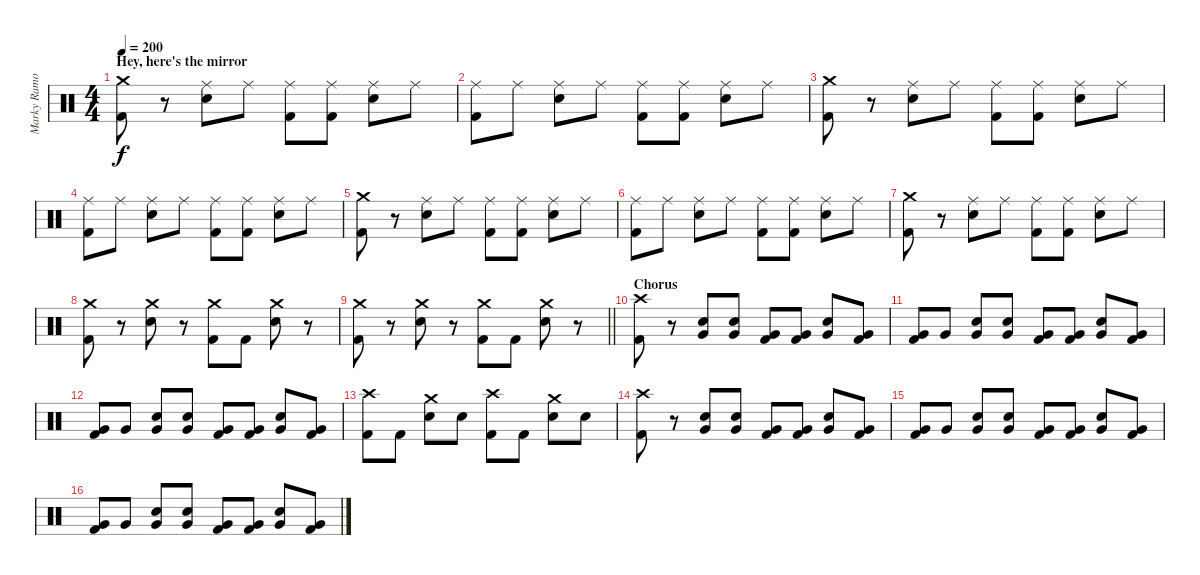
\track ("Marky Ramone" "Marky Ramo") {instrument percussion}
\staff {score}
\articulation defaults
\ts (4 4)
\section ("" "Hey, here's the mirror")
\tempo 200
\clef neutral
\ks c
("Crash medium (hit)" "Kick (hit) 2").8{dy f} r.8 ("Ride (middle)" "Electric Snare (hit)").8 "Ride (middle)".8 ("Ride (middle)" "Kick (hit) 2").8 ("Ride (middle)" "Kick (hit) 2").8 ("Ride (middle)" "Electric Snare (hit)").8 "Ride (middle)".8 |
("Ride (middle)" "Kick (hit) 2").8 "Ride (middle)".8 ("Ride (middle)" "Electric Snare (hit)").8 "Ride (middle)".8 ("Ride (middle)" "Kick (hit) 2").8 ("Ride (middle)" "Kick (hit) 2").8 ("Ride (middle)" "Electric Snare (hit)").8 "Ride (middle)".8 |
("Crash medium (hit)" "Kick (hit) 2").8 r.8 ("Ride (middle)" "Electric Snare (hit)").8 "Ride (middle)".8 ("Ride (middle)" "Kick (hit) 2").8 ("Ride (middle)" "Kick (hit) 2").8 ("Ride (middle)" "Electric Snare (hit)").8 "Ride (middle)".8 |
("Ride (middle)" "Kick (hit) 2").8 "Ride (middle)".8 ("Ride (middle)" "Electric Snare (hit)").8 "Ride (middle)".8 ("Ride (middle)" "Kick (hit) 2").8 ("Ride (middle)" "Kick (hit) 2").8 ("Ride (middle)" "Electric Snare (hit)").8 "Ride (middle)".8 |
("Crash medium (hit)" "Kick (hit) 2").8 r.8 ("Ride (middle)" "Electric Snare (hit)").8 "Ride (middle)".8 ("Ride (middle)" "Kick (hit) 2").8 ("Ride (middle)" "Kick (hit) 2").8 ("Ride (middle)" "Electric Snare (hit)").8 "Ride (middle)".8 |
("Ride (middle)" "Kick (hit) 2").8 "Ride (middle)".8 ("Ride (middle)" "Electric Snare (hit)").8 "Ride (middle)".8 ("Ride (middle)" "Kick (hit) 2").8 ("Ride (middle)" "Kick (hit) 2").8 ("Ride (middle)" "Electric Snare (hit)").8 "Ride (middle)".8 |
("Crash medium (hit)" "Kick (hit) 2").8 r.8 ("Ride (middle)" "Electric Snare (hit)").8 "Ride (middle)".8 ("Ride (middle)" "Kick (hit) 2").8 ("Ride (middle)" "Kick (hit) 2").8 ("Ride (middle)" "Electric Snare (hit)").8 "Ride (middle)".8 |
("Crash medium (hit)" "Kick (hit) 2").8 r.8 ("Crash medium (hit)" "Electric Snare (hit)").8 r.8 ("Crash medium (hit)" "Kick (hit) 2").8 "Kick (hit) 2".8 ("Crash medium (hit)" "Electric Snare (hit)").8 r.8 |
\barLineRight lightlight
("Crash medium (hit)" "Kick (hit) 2").8 r.8 ("Crash medium (hit)" "Electric Snare (hit)").8 r.8 ("Crash medium (hit)" "Kick (hit) 2").8 "Kick (hit) 2".8 ("Crash medium (hit)" "Electric Snare (hit)").8 r.8 |
\section ("" "Chorus")
("Crash high (hit)" "Kick (hit) 2").8 r.8 ("Very Low Tom (hit)" "Electric Snare (hit)").8 ("Very Low Tom (hit)" "Electric Snare (hit)").8 ("Very Low Tom (hit)" "Kick (hit) 2").8 ("Very Low Tom (hit)" "Kick (hit) 2").8 ("Very Low Tom (hit)" "Electric Snare (hit)").8 ("Very Low Tom (hit)" "Kick (hit) 2").8 |
("Very Low Tom (hit)" "Kick (hit) 2").8 "Very Low Tom (hit)".8 ("Very Low Tom (hit)" "Electric Snare (hit)").8 ("Very Low Tom (hit)" "Electric Snare (hit)").8 ("Very Low Tom (hit)" "Kick (hit) 2").8 ("Very Low Tom (hit)" "Kick (hit) 2").8 ("Very Low Tom (hit)" "Electric Snare (hit)").8 ("Very Low Tom (hit)" "Kick (hit) 2").8 |
("Very Low Tom (hit)" "Kick (hit) 2").8 "Very Low Tom (hit)".8 ("Very Low Tom (hit)" "Electric Snare (hit)").8 ("Very Low Tom (hit)" "Electric Snare (hit)").8 ("Very Low Tom (hit)" "Kick (hit) 2").8 ("Very Low Tom (hit)" "Kick (hit) 2").8 ("Very Low Tom (hit)" "Electric Snare (hit)").8 ("Very Low Tom (hit)" "Kick (hit) 2").8 |
("Crash high (hit)" "Kick (hit) 2").8 "Kick (hit) 2".8 ("Crash medium (hit)" "Electric Snare (hit)").8 "Electric Snare (hit)".8 ("Crash high (hit)" "Kick (hit) 2").8 "Kick (hit) 2".8 ("Crash medium (hit)" "Electric Snare (hit)").8 "Electric Snare (hit)".8 |
("Crash high (hit)" "Kick (hit) 2").8 r.8 ("Very Low Tom (hit)" "Electric Snare (hit)").8 ("Very Low Tom (hit)" "Electric Snare (hit)").8 ("Very Low Tom (hit)" "Kick (hit) 2").8 ("Very Low Tom (hit)" "Kick (hit) 2").8 ("Very Low Tom (hit)" "Electric Snare (hit)").8 ("Very Low Tom (hit)" "Kick (hit) 2").8 |
("Very Low Tom (hit)" "Kick (hit) 2").8 "Very Low Tom (hit)".8 ("Very Low Tom (hit)" "Electric Snare (hit)").8 ("Very Low Tom (hit)" "Electric Snare (hit)").8 ("Very Low Tom (hit)" "Kick (hit) 2").8 ("Very Low Tom (hit)" "Kick (hit) 2").8 ("Very Low Tom (hit)" "Electric Snare (hit)").8 ("Very Low Tom (hit)" "Kick (hit) 2").8 |
("Very Low Tom (hit)" "Kick (hit) 2").8 "Very Low Tom (hit)".8 ("Very Low Tom (hit)" "Electric Snare (hit)").8 ("Very Low Tom (hit)" "Electric Snare (hit)").8 ("Very Low Tom (hit)" "Kick (hit) 2").8 ("Very Low Tom (hit)" "Kick (hit) 2").8 ("Very Low Tom (hit)" "Electric Snare (hit)").8 ("Very Low Tom (hit)" "Kick (hit) 2").8
